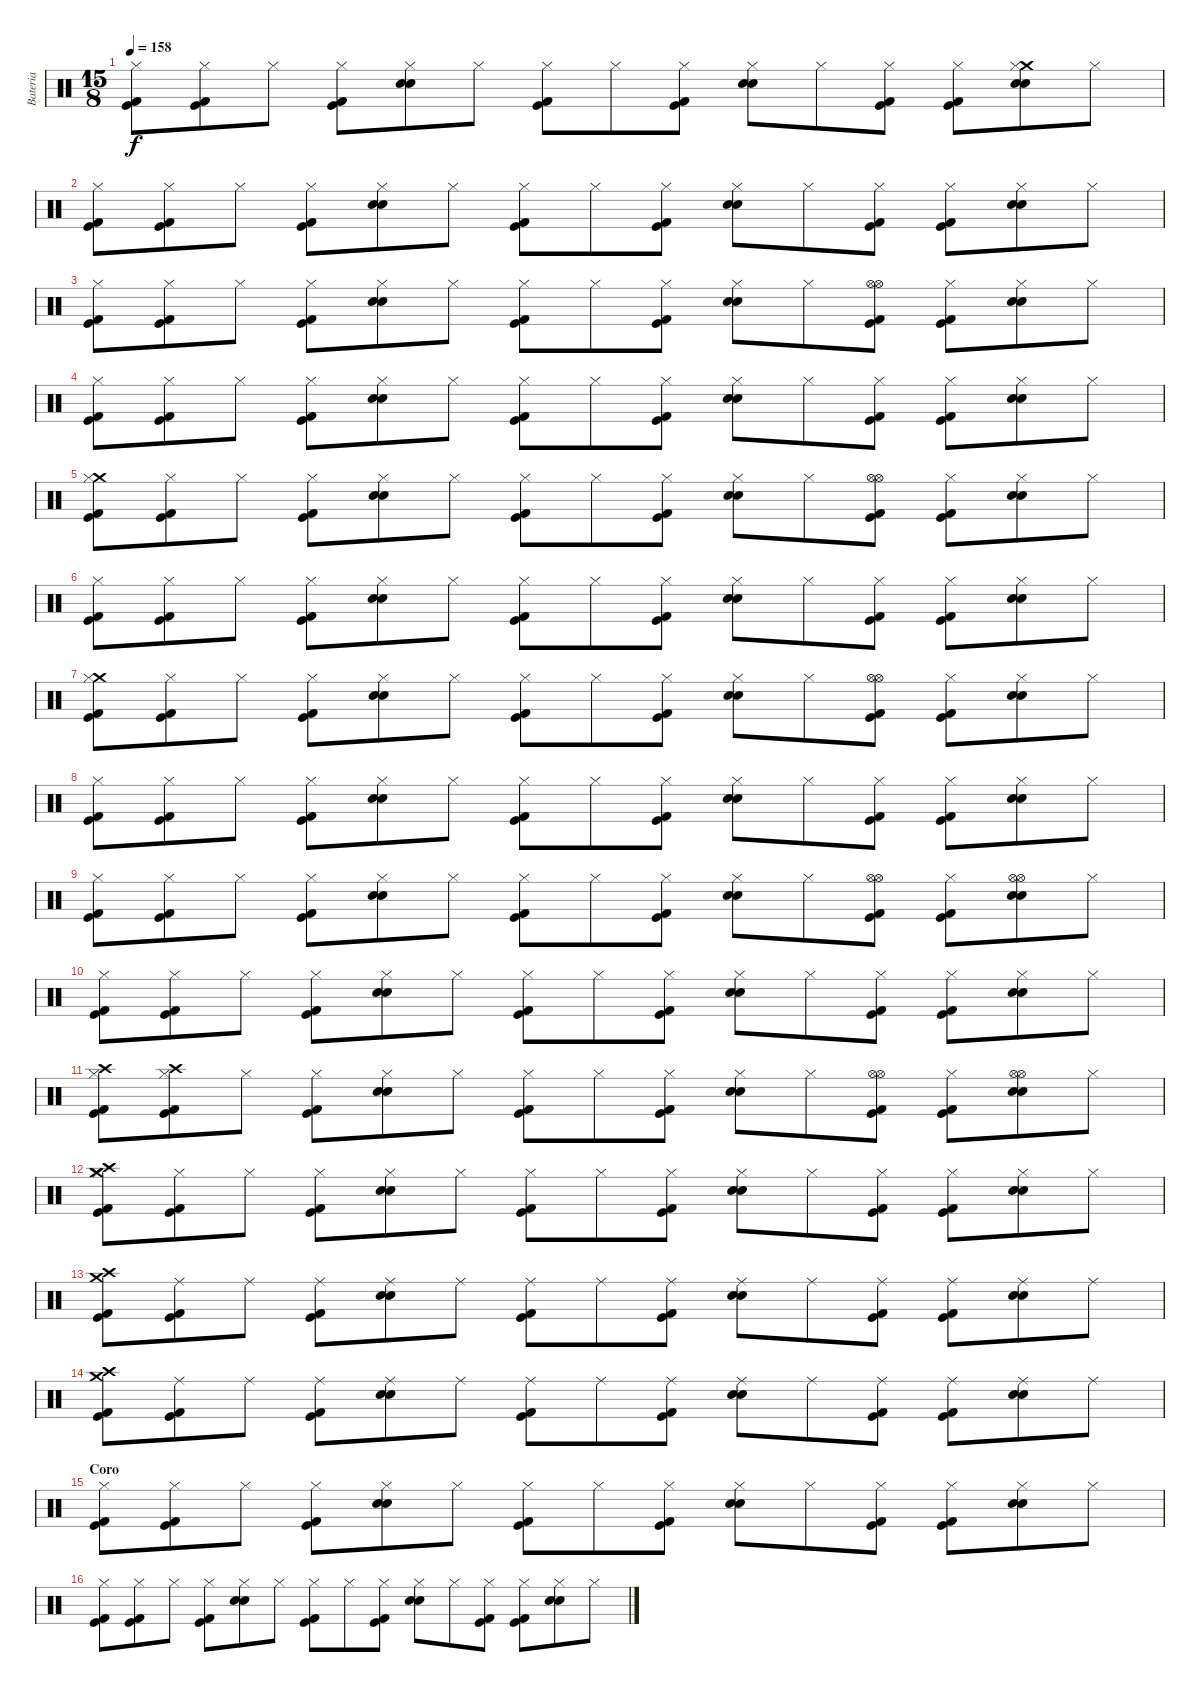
\track ("Bateria" "Bateria") {instrument percussion}
\staff {score}
\articulation defaults
\ts (15 8)
\tempo 158
\clef neutral
\ks c
("Hi-Hat (closed)" "Kick (hit) 2" "Kick (hit)").8{dy f} ("Hi-Hat (closed)" "Kick (hit) 2" "Kick (hit)").8 "Hi-Hat (closed)".8 ("Hi-Hat (closed)" "Kick (hit) 2" "Kick (hit)").8 ("Hi-Hat (closed)" "Electric Snare (hit)" "Snare (hit) 2").8 "Hi-Hat (closed)".8 ("Hi-Hat (closed)" "Kick (hit) 2" "Kick (hit)").8 "Hi-Hat (closed)".8 ("Hi-Hat (closed)" "Kick (hit) 2" "Kick (hit)").8 ("Hi-Hat (closed)" "Electric Snare (hit)" "Snare (hit) 2").8 "Hi-Hat (closed)".8 ("Hi-Hat (closed)" "Kick (hit) 2" "Kick (hit)").8 ("Hi-Hat (closed)" "Kick (hit) 2" "Kick (hit)").8 ("Crash medium (hit)" "Hi-Hat (closed)" "Electric Snare (hit)" "Snare (hit) 2").8 "Hi-Hat (closed)".8 |
("Hi-Hat (closed)" "Kick (hit) 2" "Kick (hit)").8 ("Hi-Hat (closed)" "Kick (hit) 2" "Kick (hit)").8 "Hi-Hat (closed)".8 ("Hi-Hat (closed)" "Kick (hit) 2" "Kick (hit)").8 ("Hi-Hat (closed)" "Electric Snare (hit)" "Snare (hit) 2").8 "Hi-Hat (closed)".8 ("Hi-Hat (closed)" "Kick (hit) 2" "Kick (hit)").8 "Hi-Hat (closed)".8 ("Hi-Hat (closed)" "Kick (hit) 2" "Kick (hit)").8 ("Hi-Hat (closed)" "Electric Snare (hit)" "Snare (hit) 2").8 "Hi-Hat (closed)".8 ("Hi-Hat (closed)" "Kick (hit) 2" "Kick (hit)").8 ("Hi-Hat (closed)" "Kick (hit) 2" "Kick (hit)").8 ("Hi-Hat (closed)" "Electric Snare (hit)" "Snare (hit) 2").8 "Hi-Hat (closed)".8 |
("Hi-Hat (closed)" "Kick (hit) 2" "Kick (hit)").8 ("Hi-Hat (closed)" "Kick (hit) 2" "Kick (hit)").8 "Hi-Hat (closed)".8 ("Hi-Hat (closed)" "Kick (hit) 2" "Kick (hit)").8 ("Hi-Hat (closed)" "Electric Snare (hit)" "Snare (hit) 2").8 "Hi-Hat (closed)".8 ("Hi-Hat (closed)" "Kick (hit) 2" "Kick (hit)").8 "Hi-Hat (closed)".8 ("Hi-Hat (closed)" "Kick (hit) 2" "Kick (hit)").8 ("Hi-Hat (closed)" "Electric Snare (hit)" "Snare (hit) 2").8 "Hi-Hat (closed)".8 ("Hi-Hat (open)" "Kick (hit) 2" "Kick (hit)" "Hi-Hat (open)").8 ("Hi-Hat (closed)" "Kick (hit) 2" "Kick (hit)").8 ("Hi-Hat (closed)" "Electric Snare (hit)" "Snare (hit) 2").8 "Hi-Hat (closed)".8 |
("Hi-Hat (closed)" "Kick (hit) 2" "Kick (hit)").8 ("Hi-Hat (closed)" "Kick (hit) 2" "Kick (hit)").8 "Hi-Hat (closed)".8 ("Hi-Hat (closed)" "Kick (hit) 2" "Kick (hit)").8 ("Hi-Hat (closed)" "Electric Snare (hit)" "Snare (hit) 2").8 "Hi-Hat (closed)".8 ("Hi-Hat (closed)" "Kick (hit) 2" "Kick (hit)").8 "Hi-Hat (closed)".8 ("Hi-Hat (closed)" "Kick (hit) 2" "Kick (hit)").8 ("Hi-Hat (closed)" "Electric Snare (hit)" "Snare (hit) 2").8 "Hi-Hat (closed)".8 ("Hi-Hat (closed)" "Kick (hit) 2" "Kick (hit)").8 ("Hi-Hat (closed)" "Kick (hit) 2" "Kick (hit)").8 ("Hi-Hat (closed)" "Electric Snare (hit)" "Snare (hit) 2").8 "Hi-Hat (closed)".8 |
("Crash medium (hit)" "Hi-Hat (closed)" "Kick (hit) 2" "Kick (hit)").8 ("Hi-Hat (closed)" "Kick (hit) 2" "Kick (hit)").8 "Hi-Hat (closed)".8 ("Hi-Hat (closed)" "Kick (hit) 2" "Kick (hit)").8 ("Hi-Hat (closed)" "Electric Snare (hit)" "Snare (hit) 2").8 "Hi-Hat (closed)".8 ("Hi-Hat (closed)" "Kick (hit) 2" "Kick (hit)").8 "Hi-Hat (closed)".8 ("Hi-Hat (closed)" "Kick (hit) 2" "Kick (hit)").8 ("Hi-Hat (closed)" "Electric Snare (hit)" "Snare (hit) 2").8 "Hi-Hat (closed)".8 ("Hi-Hat (open)" "Kick (hit) 2" "Kick (hit)" "Hi-Hat (open)").8 ("Hi-Hat (closed)" "Kick (hit) 2" "Kick (hit)").8 ("Hi-Hat (closed)" "Electric Snare (hit)" "Snare (hit) 2").8 "Hi-Hat (closed)".8 |
("Hi-Hat (closed)" "Kick (hit) 2" "Kick (hit)").8 ("Hi-Hat (closed)" "Kick (hit) 2" "Kick (hit)").8 "Hi-Hat (closed)".8 ("Hi-Hat (closed)" "Kick (hit) 2" "Kick (hit)").8 ("Hi-Hat (closed)" "Electric Snare (hit)" "Snare (hit) 2").8 "Hi-Hat (closed)".8 ("Hi-Hat (closed)" "Kick (hit) 2" "Kick (hit)").8 "Hi-Hat (closed)".8 ("Hi-Hat (closed)" "Kick (hit) 2" "Kick (hit)").8 ("Hi-Hat (closed)" "Electric Snare (hit)" "Snare (hit) 2").8 "Hi-Hat (closed)".8 ("Hi-Hat (closed)" "Kick (hit) 2" "Kick (hit)").8 ("Hi-Hat (closed)" "Kick (hit) 2" "Kick (hit)").8 ("Hi-Hat (closed)" "Electric Snare (hit)" "Snare (hit) 2").8 "Hi-Hat (closed)".8 |
("Crash medium (hit)" "Hi-Hat (closed)" "Kick (hit) 2" "Kick (hit)").8 ("Hi-Hat (closed)" "Kick (hit) 2" "Kick (hit)").8 "Hi-Hat (closed)".8 ("Hi-Hat (closed)" "Kick (hit) 2" "Kick (hit)").8 ("Hi-Hat (closed)" "Electric Snare (hit)" "Snare (hit) 2").8 "Hi-Hat (closed)".8 ("Hi-Hat (closed)" "Kick (hit) 2" "Kick (hit)").8 "Hi-Hat (closed)".8 ("Hi-Hat (closed)" "Kick (hit) 2" "Kick (hit)").8 ("Hi-Hat (closed)" "Electric Snare (hit)" "Snare (hit) 2").8 "Hi-Hat (closed)".8 ("Hi-Hat (open)" "Kick (hit) 2" "Kick (hit)" "Hi-Hat (open)").8 ("Hi-Hat (closed)" "Kick (hit) 2" "Kick (hit)").8 ("Hi-Hat (closed)" "Electric Snare (hit)" "Snare (hit) 2").8 "Hi-Hat (closed)".8 |
("Hi-Hat (closed)" "Kick (hit) 2" "Kick (hit)").8 ("Hi-Hat (closed)" "Kick (hit) 2" "Kick (hit)").8 "Hi-Hat (closed)".8 ("Hi-Hat (closed)" "Kick (hit) 2" "Kick (hit)").8 ("Hi-Hat (closed)" "Electric Snare (hit)" "Snare (hit) 2").8 "Hi-Hat (closed)".8 ("Hi-Hat (closed)" "Kick (hit) 2" "Kick (hit)").8 "Hi-Hat (closed)".8 ("Hi-Hat (closed)" "Kick (hit) 2" "Kick (hit)").8 ("Hi-Hat (closed)" "Electric Snare (hit)" "Snare (hit) 2").8 "Hi-Hat (closed)".8 ("Hi-Hat (closed)" "Kick (hit) 2" "Kick (hit)").8 ("Hi-Hat (closed)" "Kick (hit) 2" "Kick (hit)").8 ("Hi-Hat (closed)" "Electric Snare (hit)" "Snare (hit) 2").8 "Hi-Hat (closed)".8 |
("Hi-Hat (closed)" "Kick (hit) 2" "Kick (hit)").8 ("Hi-Hat (closed)" "Kick (hit) 2" "Kick (hit)").8 "Hi-Hat (closed)".8 ("Hi-Hat (closed)" "Kick (hit) 2" "Kick (hit)").8 ("Hi-Hat (closed)" "Electric Snare (hit)" "Snare (hit) 2").8 "Hi-Hat (closed)".8 ("Hi-Hat (closed)" "Kick (hit) 2" "Kick (hit)").8 "Hi-Hat (closed)".8 ("Hi-Hat (closed)" "Kick (hit) 2" "Kick (hit)").8 ("Hi-Hat (closed)" "Electric Snare (hit)" "Snare (hit) 2").8 "Hi-Hat (closed)".8 ("Hi-Hat (open)" "Kick (hit) 2" "Kick (hit)" "Hi-Hat (open)").8 ("Hi-Hat (closed)" "Kick (hit) 2" "Kick (hit)").8 ("Hi-Hat (open)" "Electric Snare (hit)" "Snare (hit) 2" "Hi-Hat (open)").8 "Hi-Hat (closed)".8 |
("Hi-Hat (closed)" "Kick (hit) 2" "Kick (hit)").8 ("Hi-Hat (closed)" "Kick (hit) 2" "Kick (hit)").8 "Hi-Hat (closed)".8 ("Hi-Hat (closed)" "Kick (hit) 2" "Kick (hit)").8 ("Hi-Hat (closed)" "Electric Snare (hit)" "Snare (hit) 2").8 "Hi-Hat (closed)".8 ("Hi-Hat (closed)" "Kick (hit) 2" "Kick (hit)").8 "Hi-Hat (closed)".8 ("Hi-Hat (closed)" "Kick (hit) 2" "Kick (hit)").8 ("Hi-Hat (closed)" "Electric Snare (hit)" "Snare (hit) 2").8 "Hi-Hat (closed)".8 ("Hi-Hat (closed)" "Kick (hit) 2" "Kick (hit)").8 ("Hi-Hat (closed)" "Kick (hit) 2" "Kick (hit)").8 ("Hi-Hat (closed)" "Electric Snare (hit)" "Snare (hit) 2").8 "Hi-Hat (closed)".8 |
("Crash high (hit)" "Hi-Hat (closed)" "Kick (hit) 2" "Kick (hit)").8 ("Crash high (hit)" "Hi-Hat (closed)" "Kick (hit) 2" "Kick (hit)").8 "Hi-Hat (closed)".8 ("Hi-Hat (closed)" "Kick (hit) 2" "Kick (hit)").8 ("Hi-Hat (closed)" "Electric Snare (hit)" "Snare (hit) 2").8 "Hi-Hat (closed)".8 ("Hi-Hat (closed)" "Kick (hit) 2" "Kick (hit)").8 "Hi-Hat (closed)".8 ("Hi-Hat (closed)" "Kick (hit) 2" "Kick (hit)").8 ("Hi-Hat (closed)" "Electric Snare (hit)" "Snare (hit) 2").8 "Hi-Hat (closed)".8 ("Hi-Hat (open)" "Kick (hit) 2" "Kick (hit)" "Hi-Hat (open)").8 ("Hi-Hat (closed)" "Kick (hit) 2" "Kick (hit)").8 ("Hi-Hat (open)" "Electric Snare (hit)" "Snare (hit) 2" "Hi-Hat (open)").8 "Hi-Hat (closed)".8 |
("Crash medium (hit)" "Hi-Hat (closed)" "Kick (hit) 2" "Kick (hit)" "Crash high (hit)").8 ("Hi-Hat (closed)" "Kick (hit) 2" "Kick (hit)").8 "Hi-Hat (closed)".8 ("Hi-Hat (closed)" "Kick (hit) 2" "Kick (hit)").8 ("Hi-Hat (closed)" "Electric Snare (hit)" "Snare (hit) 2").8 "Hi-Hat (closed)".8 ("Hi-Hat (closed)" "Kick (hit) 2" "Kick (hit)").8 "Hi-Hat (closed)".8 ("Hi-Hat (closed)" "Kick (hit) 2" "Kick (hit)").8 ("Hi-Hat (closed)" "Electric Snare (hit)" "Snare (hit) 2").8 "Hi-Hat (closed)".8 ("Hi-Hat (closed)" "Kick (hit) 2" "Kick (hit)").8 ("Hi-Hat (closed)" "Kick (hit) 2" "Kick (hit)").8 ("Hi-Hat (closed)" "Electric Snare (hit)" "Snare (hit) 2").8 "Hi-Hat (closed)".8 |
("Crash medium (hit)" "Kick (hit) 2" "Kick (hit)" "Crash high (hit)").8 ("Ride (middle)" "Kick (hit) 2" "Kick (hit)").8 "Ride (middle)".8 ("Ride (middle)" "Kick (hit) 2" "Kick (hit)").8 ("Ride (middle)" "Electric Snare (hit)" "Snare (hit) 2").8 "Ride (middle)".8 ("Ride (middle)" "Kick (hit) 2" "Kick (hit)").8 "Ride (middle)".8 ("Ride (middle)" "Kick (hit) 2" "Kick (hit)").8 ("Ride (middle)" "Electric Snare (hit)" "Snare (hit) 2").8 "Ride (middle)".8 ("Ride (middle)" "Kick (hit) 2" "Kick (hit)").8 ("Ride (middle)" "Kick (hit) 2" "Kick (hit)").8 ("Ride (middle)" "Electric Snare (hit)" "Snare (hit) 2").8 "Ride (middle)".8 |
("Crash medium (hit)" "Kick (hit) 2" "Kick (hit)" "Crash high (hit)").8 ("Ride (middle)" "Kick (hit) 2" "Kick (hit)").8 "Ride (middle)".8 ("Ride (middle)" "Kick (hit) 2" "Kick (hit)").8 ("Ride (middle)" "Electric Snare (hit)" "Snare (hit) 2").8 "Ride (middle)".8 ("Ride (middle)" "Kick (hit) 2" "Kick (hit)").8 "Ride (middle)".8 ("Ride (middle)" "Kick (hit) 2" "Kick (hit)").8 ("Ride (middle)" "Electric Snare (hit)" "Snare (hit) 2").8 "Ride (middle)".8 ("Ride (middle)" "Kick (hit) 2" "Kick (hit)").8 ("Ride (middle)" "Kick (hit) 2" "Kick (hit)").8 ("Ride (middle)" "Electric Snare (hit)" "Snare (hit) 2").8 "Ride (middle)".8 |
\section ("" "Coro")
("Hi-Hat (closed)" "Kick (hit) 2" "Kick (hit)").8 ("Hi-Hat (closed)" "Kick (hit) 2" "Kick (hit)").8 "Hi-Hat (closed)".8 ("Hi-Hat (closed)" "Kick (hit) 2" "Kick (hit)").8 ("Hi-Hat (closed)" "Electric Snare (hit)" "Snare (hit) 2").8 "Hi-Hat (closed)".8 ("Hi-Hat (closed)" "Kick (hit) 2" "Kick (hit)").8 "Hi-Hat (closed)".8 ("Hi-Hat (closed)" "Kick (hit) 2" "Kick (hit)").8 ("Hi-Hat (closed)" "Electric Snare (hit)" "Snare (hit) 2").8 "Hi-Hat (closed)".8 ("Hi-Hat (closed)" "Kick (hit) 2" "Kick (hit)").8 ("Hi-Hat (closed)" "Kick (hit) 2" "Kick (hit)").8 ("Hi-Hat (closed)" "Electric Snare (hit)" "Snare (hit) 2").8 "Hi-Hat (closed)".8 |
("Hi-Hat (closed)" "Kick (hit) 2" "Kick (hit)").8 ("Hi-Hat (closed)" "Kick (hit) 2" "Kick (hit)").8 "Hi-Hat (closed)".8 ("Hi-Hat (closed)" "Kick (hit) 2" "Kick (hit)").8 ("Hi-Hat (closed)" "Electric Snare (hit)" "Snare (hit) 2").8 "Hi-Hat (closed)".8 ("Hi-Hat (closed)" "Kick (hit) 2" "Kick (hit)").8 "Hi-Hat (closed)".8 ("Hi-Hat (closed)" "Kick (hit) 2" "Kick (hit)").8 ("Hi-Hat (closed)" "Electric Snare (hit)" "Snare (hit) 2").8 "Hi-Hat (closed)".8 ("Hi-Hat (closed)" "Kick (hit) 2" "Kick (hit)").8 ("Hi-Hat (closed)" "Kick (hit) 2" "Kick (hit)").8 ("Hi-Hat (closed)" "Electric Snare (hit)" "Snare (hit) 2").8 "Hi-Hat (closed)".8
